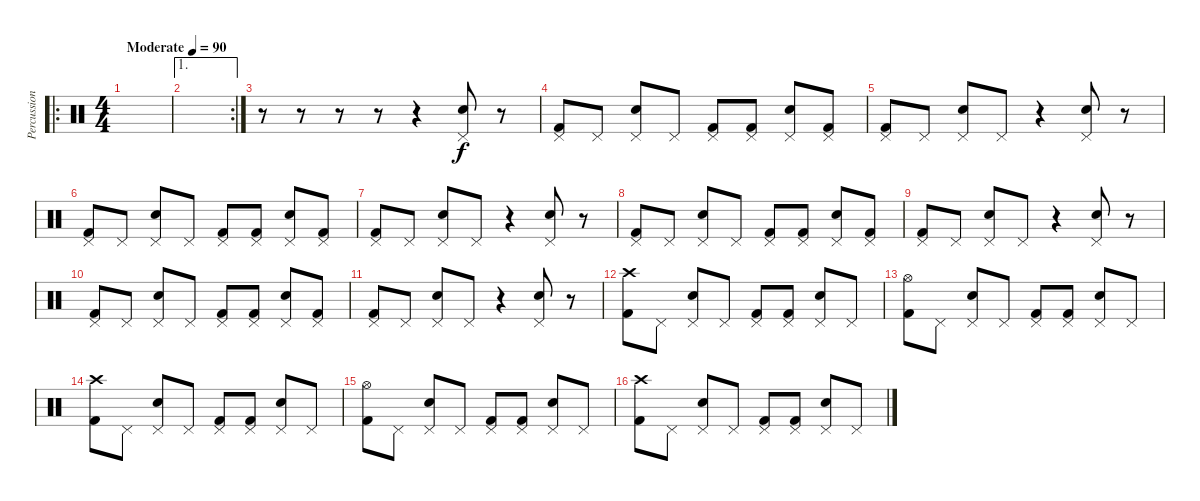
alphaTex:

\track ("Percussion" "Percussion") {instrument percussion}
\staff {score}
\articulation defaults
\ro
\ts (4 4)
\tempo (90 "Moderate")
\clef neutral
\ks c
|
\ae 1
\rc 2
|
r.8 r.8 r.8 r.8 r.4 ("Pedal Hi-Hat (hit)" "Electric Snare (hit)").8 r.8 |
("Pedal Hi-Hat (hit)" "Kick (hit) 2").8 "Pedal Hi-Hat (hit)".8 ("Pedal Hi-Hat (hit)" "Electric Snare (hit)").8 "Pedal Hi-Hat (hit)".8 ("Pedal Hi-Hat (hit)" "Kick (hit) 2").8 ("Pedal Hi-Hat (hit)" "Kick (hit) 2").8 ("Pedal Hi-Hat (hit)" "Electric Snare (hit)").8 ("Pedal Hi-Hat (hit)" "Kick (hit) 2").8 |
("Pedal Hi-Hat (hit)" "Kick (hit) 2").8 "Pedal Hi-Hat (hit)".8 ("Pedal Hi-Hat (hit)" "Electric Snare (hit)").8 "Pedal Hi-Hat (hit)".8 r.4 ("Pedal Hi-Hat (hit)" "Electric Snare (hit)").8 r.8 |
("Pedal Hi-Hat (hit)" "Kick (hit) 2").8 "Pedal Hi-Hat (hit)".8 ("Pedal Hi-Hat (hit)" "Electric Snare (hit)").8 "Pedal Hi-Hat (hit)".8 ("Pedal Hi-Hat (hit)" "Kick (hit) 2").8 ("Pedal Hi-Hat (hit)" "Kick (hit) 2").8 ("Pedal Hi-Hat (hit)" "Electric Snare (hit)").8 ("Pedal Hi-Hat (hit)" "Kick (hit) 2").8 |
("Pedal Hi-Hat (hit)" "Kick (hit) 2").8 "Pedal Hi-Hat (hit)".8 ("Pedal Hi-Hat (hit)" "Electric Snare (hit)").8 "Pedal Hi-Hat (hit)".8 r.4 ("Pedal Hi-Hat (hit)" "Electric Snare (hit)").8 r.8 |
("Pedal Hi-Hat (hit)" "Kick (hit) 2").8 "Pedal Hi-Hat (hit)".8 ("Pedal Hi-Hat (hit)" "Electric Snare (hit)").8 "Pedal Hi-Hat (hit)".8 ("Pedal Hi-Hat (hit)" "Kick (hit) 2").8 ("Pedal Hi-Hat (hit)" "Kick (hit) 2").8 ("Pedal Hi-Hat (hit)" "Electric Snare (hit)").8 ("Pedal Hi-Hat (hit)" "Kick (hit) 2").8 |
("Pedal Hi-Hat (hit)" "Kick (hit) 2").8 "Pedal Hi-Hat (hit)".8 ("Pedal Hi-Hat (hit)" "Electric Snare (hit)").8 "Pedal Hi-Hat (hit)".8 r.4 ("Pedal Hi-Hat (hit)" "Electric Snare (hit)").8 r.8 |
("Pedal Hi-Hat (hit)" "Kick (hit) 2").8 "Pedal Hi-Hat (hit)".8 ("Pedal Hi-Hat (hit)" "Electric Snare (hit)").8 "Pedal Hi-Hat (hit)".8 ("Pedal Hi-Hat (hit)" "Kick (hit) 2").8 ("Pedal Hi-Hat (hit)" "Kick (hit) 2").8 ("Pedal Hi-Hat (hit)" "Electric Snare (hit)").8 ("Pedal Hi-Hat (hit)" "Kick (hit) 2").8 |
("Pedal Hi-Hat (hit)" "Kick (hit) 2").8 "Pedal Hi-Hat (hit)".8 ("Pedal Hi-Hat (hit)" "Electric Snare (hit)").8 "Pedal Hi-Hat (hit)".8 r.4 ("Pedal Hi-Hat (hit)" "Electric Snare (hit)").8 r.8 |
("Crash high (hit)" "Kick (hit) 2").8 "Pedal Hi-Hat (hit)".8 ("Pedal Hi-Hat (hit)" "Electric Snare (hit)").8 "Pedal Hi-Hat (hit)".8 ("Pedal Hi-Hat (hit)" "Kick (hit) 2").8 ("Pedal Hi-Hat (hit)" "Kick (hit) 2").8 ("Pedal Hi-Hat (hit)" "Electric Snare (hit)").8 "Pedal Hi-Hat (hit)".8 |
("Hi-Hat (open)" "Kick (hit) 2").8 "Pedal Hi-Hat (hit)".8 ("Pedal Hi-Hat (hit)" "Electric Snare (hit)").8 "Pedal Hi-Hat (hit)".8 ("Pedal Hi-Hat (hit)" "Kick (hit) 2").8 ("Pedal Hi-Hat (hit)" "Kick (hit) 2").8 ("Pedal Hi-Hat (hit)" "Electric Snare (hit)").8 "Pedal Hi-Hat (hit)".8 |
("Crash high (hit)" "Kick (hit) 2").8 "Pedal Hi-Hat (hit)".8 ("Pedal Hi-Hat (hit)" "Electric Snare (hit)").8 "Pedal Hi-Hat (hit)".8 ("Pedal Hi-Hat (hit)" "Kick (hit) 2").8 ("Pedal Hi-Hat (hit)" "Kick (hit) 2").8 ("Pedal Hi-Hat (hit)" "Electric Snare (hit)").8 "Pedal Hi-Hat (hit)".8 |
("Hi-Hat (open)" "Kick (hit) 2").8 "Pedal Hi-Hat (hit)".8 ("Pedal Hi-Hat (hit)" "Electric Snare (hit)").8 "Pedal Hi-Hat (hit)".8 ("Pedal Hi-Hat (hit)" "Kick (hit) 2").8 ("Pedal Hi-Hat (hit)" "Kick (hit) 2").8 ("Pedal Hi-Hat (hit)" "Electric Snare (hit)").8 "Pedal Hi-Hat (hit)".8 |
("Crash high (hit)" "Kick (hit) 2").8 "Pedal Hi-Hat (hit)".8 ("Pedal Hi-Hat (hit)" "Electric Snare (hit)").8 "Pedal Hi-Hat (hit)".8 ("Pedal Hi-Hat (hit)" "Kick (hit) 2").8 ("Pedal Hi-Hat (hit)" "Kick (hit) 2").8 ("Pedal Hi-Hat (hit)" "Electric Snare (hit)").8 "Pedal Hi-Hat (hit)".8
